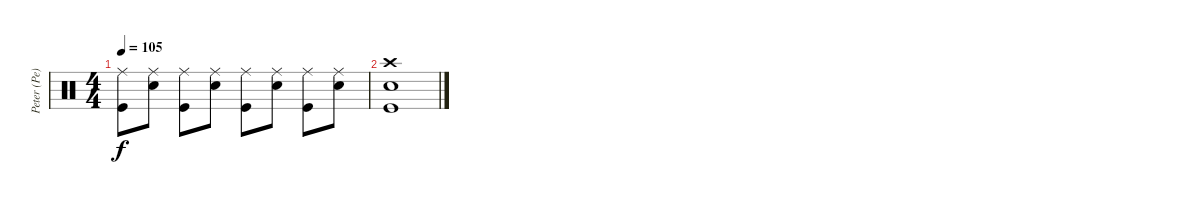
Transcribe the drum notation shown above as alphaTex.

\track ("Peter (Pe) Schorowsky" "Peter (Pe)") {instrument percussion}
\staff {score}
\articulation defaults
\ts (4 4)
\tempo 105
\clef neutral
\ks c
("Ride (middle)" "Kick (hit)").8{dy f} ("Ride (middle)" "Snare (hit) 2").8 ("Ride (middle)" "Kick (hit)").8 ("Ride (middle)" "Snare (hit) 2").8 ("Ride (middle)" "Kick (hit)").8 ("Ride (middle)" "Snare (hit) 2").8 ("Ride (middle)" "Kick (hit)").8 ("Ride (middle)" "Snare (hit) 2").8 |
("Snare (hit) 2" "Crash high (hit)" "Kick (hit)").1
